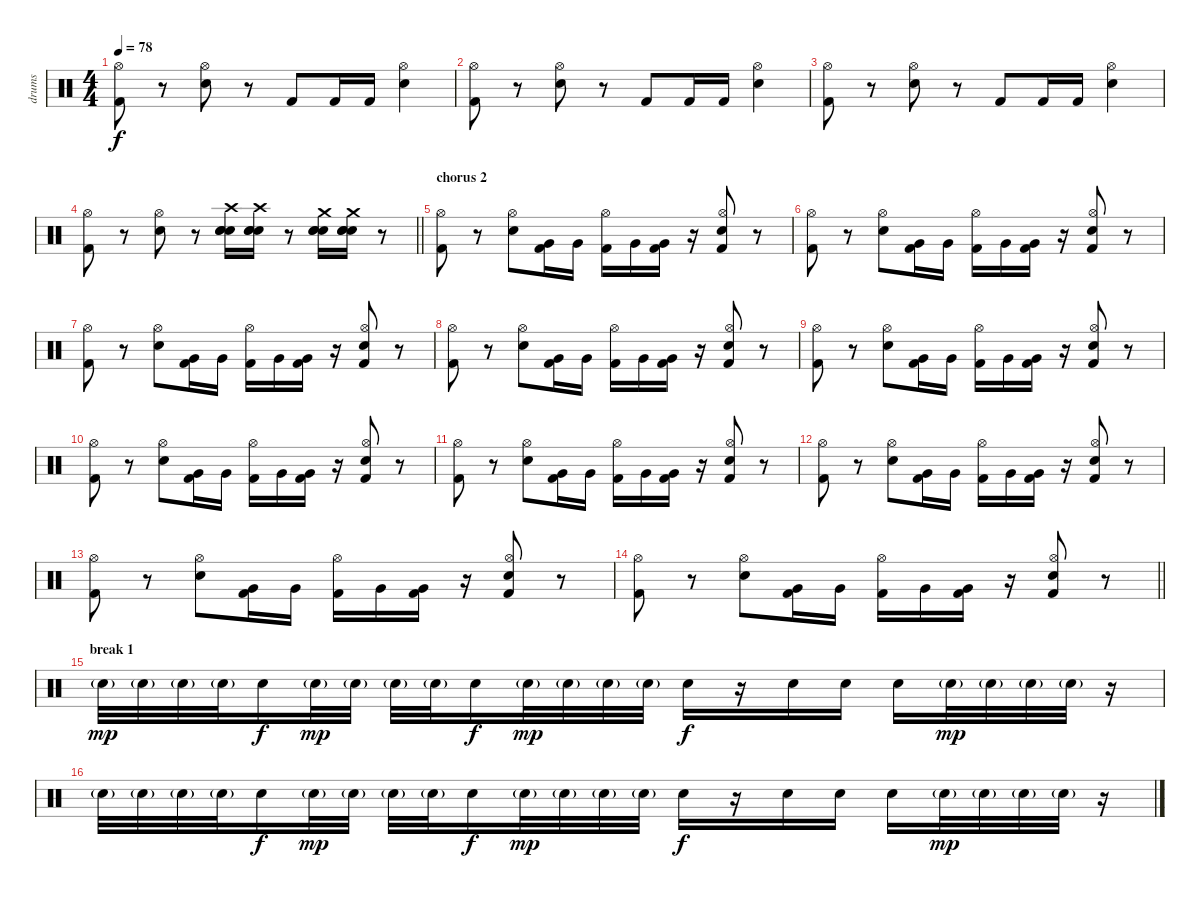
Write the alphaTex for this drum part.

\track ("drums" "drums") {instrument percussion}
\staff {score}
\articulation defaults
\ts (4 4)
\tempo 78
\clef neutral
\ks c
("Kick (hit) 2" "Hi-Hat (open)").8{dy f} r.8 ("Electric Snare (hit)" "Hi-Hat (open)").8 r.8 "Kick (hit) 2".8 "Kick (hit) 2".16 "Kick (hit) 2".16 ("Electric Snare (hit)" "Hi-Hat (open)").4 |
("Kick (hit) 2" "Hi-Hat (open)").8 r.8 ("Electric Snare (hit)" "Hi-Hat (open)").8 r.8 "Kick (hit) 2".8 "Kick (hit) 2".16 "Kick (hit) 2".16 ("Electric Snare (hit)" "Hi-Hat (open)").4 |
("Kick (hit) 2" "Hi-Hat (open)").8 r.8 ("Electric Snare (hit)" "Hi-Hat (open)").8 r.8 "Kick (hit) 2".8 "Kick (hit) 2".16 "Kick (hit) 2".16 ("Electric Snare (hit)" "Hi-Hat (open)").4 |
\barLineRight lightlight
("Kick (hit) 2" "Hi-Hat (open)").8 r.8 ("Electric Snare (hit)" "Hi-Hat (open)").8 r.8 ("Electric Snare (hit)" "Electric Snare (hit)" "Electric Snare (hit)" "Crash high (hit)").16 ("Electric Snare (hit)" "Electric Snare (hit)" "Electric Snare (hit)" "Crash high (hit)").16 r.8 ("Electric Snare (hit)" "Electric Snare (hit)" "Electric Snare (hit)" "Crash medium (hit)").16 ("Electric Snare (hit)" "Electric Snare (hit)" "Electric Snare (hit)" "Crash medium (hit)").16 r.8 |
\section ("" "chorus 2")
("Kick (hit) 2" "Hi-Hat (open)").8 r.8 ("Electric Snare (hit)" "Hi-Hat (open)").8 ("Kick (hit) 2" "Very Low Tom (hit)").16 "Very Low Tom (hit)".16 ("Kick (hit) 2" "Hi-Hat (open)").16 "Very Low Tom (hit)".16 ("Kick (hit) 2" "Very Low Tom (hit)").16 r.16 ("Kick (hit) 2" "Electric Snare (hit)" "Hi-Hat (open)").8 r.8 |
("Kick (hit) 2" "Hi-Hat (open)").8 r.8 ("Electric Snare (hit)" "Hi-Hat (open)").8 ("Kick (hit) 2" "Very Low Tom (hit)").16 "Very Low Tom (hit)".16 ("Kick (hit) 2" "Hi-Hat (open)").16 "Very Low Tom (hit)".16 ("Kick (hit) 2" "Very Low Tom (hit)").16 r.16 ("Kick (hit) 2" "Electric Snare (hit)" "Hi-Hat (open)").8 r.8 |
("Kick (hit) 2" "Hi-Hat (open)").8 r.8 ("Electric Snare (hit)" "Hi-Hat (open)").8 ("Kick (hit) 2" "Very Low Tom (hit)").16 "Very Low Tom (hit)".16 ("Kick (hit) 2" "Hi-Hat (open)").16 "Very Low Tom (hit)".16 ("Kick (hit) 2" "Very Low Tom (hit)").16 r.16 ("Kick (hit) 2" "Electric Snare (hit)" "Hi-Hat (open)").8 r.8 |
("Kick (hit) 2" "Hi-Hat (open)").8 r.8 ("Electric Snare (hit)" "Hi-Hat (open)").8 ("Kick (hit) 2" "Very Low Tom (hit)").16 "Very Low Tom (hit)".16 ("Kick (hit) 2" "Hi-Hat (open)").16 "Very Low Tom (hit)".16 ("Kick (hit) 2" "Very Low Tom (hit)").16 r.16 ("Kick (hit) 2" "Electric Snare (hit)" "Hi-Hat (open)").8 r.8 |
("Kick (hit) 2" "Hi-Hat (open)").8 r.8 ("Electric Snare (hit)" "Hi-Hat (open)").8 ("Kick (hit) 2" "Very Low Tom (hit)").16 "Very Low Tom (hit)".16 ("Kick (hit) 2" "Hi-Hat (open)").16 "Very Low Tom (hit)".16 ("Kick (hit) 2" "Very Low Tom (hit)").16 r.16 ("Kick (hit) 2" "Electric Snare (hit)" "Hi-Hat (open)").8 r.8 |
("Kick (hit) 2" "Hi-Hat (open)").8 r.8 ("Electric Snare (hit)" "Hi-Hat (open)").8 ("Kick (hit) 2" "Very Low Tom (hit)").16 "Very Low Tom (hit)".16 ("Kick (hit) 2" "Hi-Hat (open)").16 "Very Low Tom (hit)".16 ("Kick (hit) 2" "Very Low Tom (hit)").16 r.16 ("Kick (hit) 2" "Electric Snare (hit)" "Hi-Hat (open)").8 r.8 |
("Kick (hit) 2" "Hi-Hat (open)").8 r.8 ("Electric Snare (hit)" "Hi-Hat (open)").8 ("Kick (hit) 2" "Very Low Tom (hit)").16 "Very Low Tom (hit)".16 ("Kick (hit) 2" "Hi-Hat (open)").16 "Very Low Tom (hit)".16 ("Kick (hit) 2" "Very Low Tom (hit)").16 r.16 ("Kick (hit) 2" "Electric Snare (hit)" "Hi-Hat (open)").8 r.8 |
("Kick (hit) 2" "Hi-Hat (open)").8 r.8 ("Electric Snare (hit)" "Hi-Hat (open)").8 ("Kick (hit) 2" "Very Low Tom (hit)").16 "Very Low Tom (hit)".16 ("Kick (hit) 2" "Hi-Hat (open)").16 "Very Low Tom (hit)".16 ("Kick (hit) 2" "Very Low Tom (hit)").16 r.16 ("Kick (hit) 2" "Electric Snare (hit)" "Hi-Hat (open)").8 r.8 |
("Kick (hit) 2" "Hi-Hat (open)").8 r.8 ("Electric Snare (hit)" "Hi-Hat (open)").8 ("Kick (hit) 2" "Very Low Tom (hit)").16 "Very Low Tom (hit)".16 ("Kick (hit) 2" "Hi-Hat (open)").16 "Very Low Tom (hit)".16 ("Kick (hit) 2" "Very Low Tom (hit)").16 r.16 ("Kick (hit) 2" "Electric Snare (hit)" "Hi-Hat (open)").8 r.8 |
\barLineRight lightlight
("Kick (hit) 2" "Hi-Hat (open)").8 r.8 ("Electric Snare (hit)" "Hi-Hat (open)").8 ("Kick (hit) 2" "Very Low Tom (hit)").16 "Very Low Tom (hit)".16 ("Kick (hit) 2" "Hi-Hat (open)").16 "Very Low Tom (hit)".16 ("Kick (hit) 2" "Very Low Tom (hit)").16 r.16 ("Kick (hit) 2" "Electric Snare (hit)" "Hi-Hat (open)").8 r.8 |
\section ("" "break 1")
"Electric Snare (hit)"{g}.32{dy mp volume 4} "Electric Snare (hit)"{g}.32 "Electric Snare (hit)"{g}.32 "Electric Snare (hit)"{g}.32 "Electric Snare (hit)".16{dy f} "Electric Snare (hit)"{g}.32{dy mp} "Electric Snare (hit)"{g}.32 "Electric Snare (hit)"{g}.32 "Electric Snare (hit)"{g}.32 "Electric Snare (hit)".16{dy f} "Electric Snare (hit)"{g}.32{dy mp} "Electric Snare (hit)"{g}.32 "Electric Snare (hit)"{g}.32 "Electric Snare (hit)"{g}.32 "Electric Snare (hit)".16{dy f} r.16 "Electric Snare (hit)".16 "Electric Snare (hit)".16 "Electric Snare (hit)".16 "Electric Snare (hit)"{g}.32{dy mp} "Electric Snare (hit)"{g}.32 "Electric Snare (hit)"{g}.32 "Electric Snare (hit)"{g}.32 r.16 |
"Electric Snare (hit)"{g}.32 "Electric Snare (hit)"{g}.32 "Electric Snare (hit)"{g}.32 "Electric Snare (hit)"{g}.32 "Electric Snare (hit)".16{dy f} "Electric Snare (hit)"{g}.32{dy mp} "Electric Snare (hit)"{g}.32 "Electric Snare (hit)"{g}.32 "Electric Snare (hit)"{g}.32 "Electric Snare (hit)".16{dy f} "Electric Snare (hit)"{g}.32{dy mp} "Electric Snare (hit)"{g}.32 "Electric Snare (hit)"{g}.32 "Electric Snare (hit)"{g}.32 "Electric Snare (hit)".16{dy f} r.16 "Electric Snare (hit)".16 "Electric Snare (hit)".16 "Electric Snare (hit)".16 "Electric Snare (hit)"{g}.32{dy mp} "Electric Snare (hit)"{g}.32 "Electric Snare (hit)"{g}.32 "Electric Snare (hit)"{g}.32 r.16
